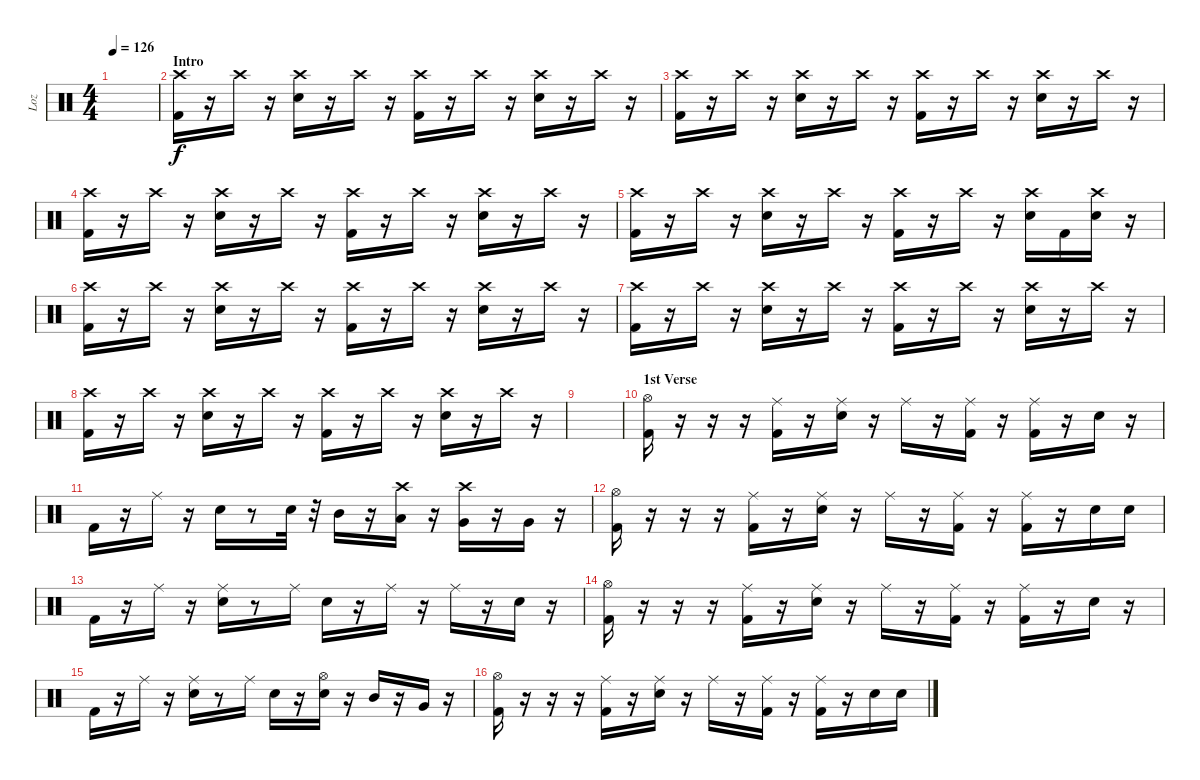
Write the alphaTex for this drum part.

\track ("Loz" "Loz") {instrument percussion}
\staff {score}
\articulation defaults
\ts (4 4)
\tempo 126
\clef neutral
\ks c
|
\section ("" "Intro")
("Crash high (hit)" "Kick (hit) 2").16 r.16 "Crash high (hit)".16 r.16 ("Crash high (hit)" "Snare (hit) 2").16 r.16 "Crash high (hit)".16 r.16 ("Crash high (hit)" "Kick (hit) 2").16 r.16 "Crash high (hit)".16 r.16 ("Crash high (hit)" "Snare (hit) 2").16 r.16 "Crash high (hit)".16 r.16 |
("Crash high (hit)" "Kick (hit) 2").16 r.16 "Crash high (hit)".16 r.16 ("Crash high (hit)" "Snare (hit) 2").16 r.16 "Crash high (hit)".16 r.16 ("Crash high (hit)" "Kick (hit) 2").16 r.16 "Crash high (hit)".16 r.16 ("Crash high (hit)" "Snare (hit) 2").16 r.16 "Crash high (hit)".16 r.16 |
("Crash high (hit)" "Kick (hit) 2").16 r.16 "Crash high (hit)".16 r.16 ("Crash high (hit)" "Snare (hit) 2").16 r.16 "Crash high (hit)".16 r.16 ("Crash high (hit)" "Kick (hit) 2").16 r.16 "Crash high (hit)".16 r.16 ("Crash high (hit)" "Snare (hit) 2").16 r.16 "Crash high (hit)".16 r.16 |
("Crash high (hit)" "Kick (hit) 2").16 r.16 "Crash high (hit)".16 r.16 ("Crash high (hit)" "Snare (hit) 2").16 r.16 "Crash high (hit)".16 r.16 ("Crash high (hit)" "Kick (hit) 2").16 r.16 "Crash high (hit)".16 r.16 ("Crash high (hit)" "Snare (hit) 2").16 "Kick (hit) 2".16 ("Crash high (hit)" "Snare (hit) 2").16 r.16 |
("Crash high (hit)" "Kick (hit) 2").16 r.16 "Crash high (hit)".16 r.16 ("Crash high (hit)" "Snare (hit) 2").16 r.16 "Crash high (hit)".16 r.16 ("Crash high (hit)" "Kick (hit) 2").16 r.16 "Crash high (hit)".16 r.16 ("Crash high (hit)" "Snare (hit) 2").16 r.16 "Crash high (hit)".16 r.16 |
("Crash high (hit)" "Kick (hit) 2").16 r.16 "Crash high (hit)".16 r.16 ("Crash high (hit)" "Snare (hit) 2").16 r.16 "Crash high (hit)".16 r.16 ("Crash high (hit)" "Kick (hit) 2").16 r.16 "Crash high (hit)".16 r.16 ("Crash high (hit)" "Snare (hit) 2").16 r.16 "Crash high (hit)".16 r.16 |
("Crash high (hit)" "Kick (hit) 2").16 r.16 "Crash high (hit)".16 r.16 ("Crash high (hit)" "Snare (hit) 2").16 r.16 "Crash high (hit)".16 r.16 ("Crash high (hit)" "Kick (hit) 2").16 r.16 "Crash high (hit)".16 r.16 ("Crash high (hit)" "Snare (hit) 2").16 r.16 "Crash high (hit)".16 r.16 |
|
\section ("" "1st Verse")
("Hi-Hat (open)" "Kick (hit) 2").16{volume 11} r.16 r.16 r.16 ("Ride (middle)" "Kick (hit) 2").16 r.16 ("Ride (middle)" "Snare (hit) 2").16 r.16 "Ride (middle)".16 r.16 ("Ride (middle)" "Kick (hit) 2").16 r.16 ("Ride (middle)" "Kick (hit) 2").16 r.16 "Snare (hit) 2".16 r.16 |
"Kick (hit) 2".16 r.16 "Ride (middle)".16 r.16 "Snare (hit) 2".16 r.8 "Snare (hit) 2".32 r.32 "Mid Tom (hit)".16 r.16 ("Crash high (hit)" "Low Tom (hit)").16 r.16 ("Crash high (hit)" "Very Low Tom (hit)").16 r.16 "Very Low Tom (hit)".16 r.16 |
("Hi-Hat (open)" "Kick (hit) 2").16 r.16 r.16 r.16 ("Ride (middle)" "Kick (hit) 2").16 r.16 ("Ride (middle)" "Snare (hit) 2").16 r.16 "Ride (middle)".16 r.16 ("Ride (middle)" "Kick (hit) 2").16 r.16 ("Ride (middle)" "Kick (hit) 2").16 r.16 "Snare (hit) 2".16 "Snare (hit) 2".16 |
"Kick (hit) 2".16 r.16 "Ride (middle)".16 r.16 ("Ride (middle)" "Snare (hit) 2").16 r.8 "Ride (middle)".16 "Snare (hit) 2".16 r.16 "Ride (middle)".16 r.16 "Ride (middle)".16 r.16 "Snare (hit) 2".16 r.16 |
("Hi-Hat (open)" "Kick (hit) 2").16 r.16 r.16 r.16 ("Ride (middle)" "Kick (hit) 2").16 r.16 ("Ride (middle)" "Snare (hit) 2").16 r.16 "Ride (middle)".16 r.16 ("Ride (middle)" "Kick (hit) 2").16 r.16 ("Ride (middle)" "Kick (hit) 2").16 r.16 "Snare (hit) 2".16 r.16 |
"Kick (hit) 2".16 r.16 "Ride (middle)".16 r.16 ("Ride (middle)" "Snare (hit) 2").16 r.8 "Ride (middle)".16 "Snare (hit) 2".16 r.16 ("Hi-Hat (open)" "Snare (hit) 2").16 r.16 "Mid Tom (hit)".16 r.16 "Very Low Tom (hit)".16 r.16 |
("Hi-Hat (open)" "Kick (hit) 2").16 r.16 r.16 r.16 ("Ride (middle)" "Kick (hit) 2").16 r.16 ("Ride (middle)" "Snare (hit) 2").16 r.16 "Ride (middle)".16 r.16 ("Ride (middle)" "Kick (hit) 2").16 r.16 ("Ride (middle)" "Kick (hit) 2").16 r.16 "Snare (hit) 2".16 "Snare (hit) 2".16
